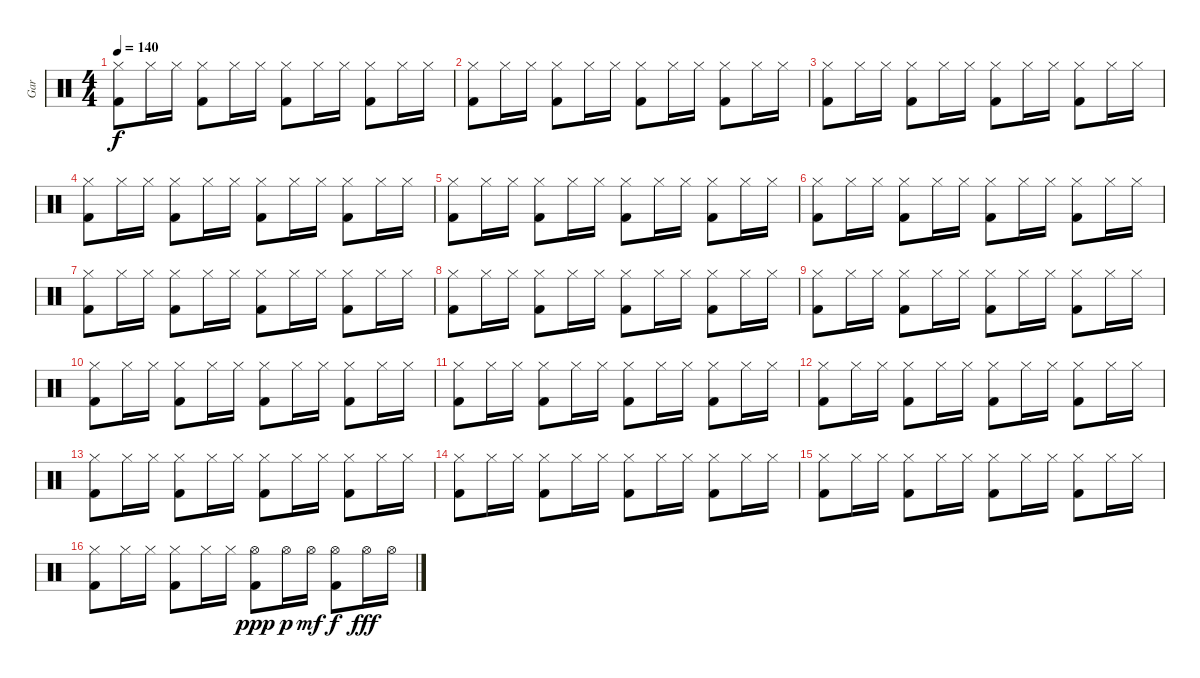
\track ("Gar" "Gar") {instrument percussion}
\staff {score}
\articulation defaults
\ts (4 4)
\tempo 140
\clef neutral
\ks c
("Hi-Hat (closed)" "Kick (hit) 2").8{dy f} "Hi-Hat (closed)".16 "Hi-Hat (closed)".16 ("Hi-Hat (closed)" "Kick (hit) 2").8 "Hi-Hat (closed)".16 "Hi-Hat (closed)".16 ("Hi-Hat (closed)" "Kick (hit) 2").8 "Hi-Hat (closed)".16 "Hi-Hat (closed)".16 ("Hi-Hat (closed)" "Kick (hit) 2").8 "Hi-Hat (closed)".16 "Hi-Hat (closed)".16 |
("Hi-Hat (closed)" "Kick (hit) 2").8 "Hi-Hat (closed)".16 "Hi-Hat (closed)".16 ("Hi-Hat (closed)" "Kick (hit) 2").8 "Hi-Hat (closed)".16 "Hi-Hat (closed)".16 ("Hi-Hat (closed)" "Kick (hit) 2").8 "Hi-Hat (closed)".16 "Hi-Hat (closed)".16 ("Hi-Hat (closed)" "Kick (hit) 2").8 "Hi-Hat (closed)".16 "Hi-Hat (closed)".16 |
("Hi-Hat (closed)" "Kick (hit) 2").8 "Hi-Hat (closed)".16 "Hi-Hat (closed)".16 ("Hi-Hat (closed)" "Kick (hit) 2").8 "Hi-Hat (closed)".16 "Hi-Hat (closed)".16 ("Hi-Hat (closed)" "Kick (hit) 2").8 "Hi-Hat (closed)".16 "Hi-Hat (closed)".16 ("Hi-Hat (closed)" "Kick (hit) 2").8 "Hi-Hat (closed)".16 "Hi-Hat (closed)".16 |
("Hi-Hat (closed)" "Kick (hit) 2").8 "Hi-Hat (closed)".16 "Hi-Hat (closed)".16 ("Hi-Hat (closed)" "Kick (hit) 2").8 "Hi-Hat (closed)".16 "Hi-Hat (closed)".16 ("Hi-Hat (closed)" "Kick (hit) 2").8 "Hi-Hat (closed)".16 "Hi-Hat (closed)".16 ("Hi-Hat (closed)" "Kick (hit) 2").8 "Hi-Hat (closed)".16 "Hi-Hat (closed)".16 |
("Hi-Hat (closed)" "Kick (hit) 2").8 "Hi-Hat (closed)".16 "Hi-Hat (closed)".16 ("Hi-Hat (closed)" "Kick (hit) 2").8 "Hi-Hat (closed)".16 "Hi-Hat (closed)".16 ("Hi-Hat (closed)" "Kick (hit) 2").8 "Hi-Hat (closed)".16 "Hi-Hat (closed)".16 ("Hi-Hat (closed)" "Kick (hit) 2").8 "Hi-Hat (closed)".16 "Hi-Hat (closed)".16 |
("Hi-Hat (closed)" "Kick (hit) 2").8 "Hi-Hat (closed)".16 "Hi-Hat (closed)".16 ("Hi-Hat (closed)" "Kick (hit) 2").8 "Hi-Hat (closed)".16 "Hi-Hat (closed)".16 ("Hi-Hat (closed)" "Kick (hit) 2").8 "Hi-Hat (closed)".16 "Hi-Hat (closed)".16 ("Hi-Hat (closed)" "Kick (hit) 2").8 "Hi-Hat (closed)".16 "Hi-Hat (closed)".16 |
("Hi-Hat (closed)" "Kick (hit) 2").8 "Hi-Hat (closed)".16 "Hi-Hat (closed)".16 ("Hi-Hat (closed)" "Kick (hit) 2").8 "Hi-Hat (closed)".16 "Hi-Hat (closed)".16 ("Hi-Hat (closed)" "Kick (hit) 2").8 "Hi-Hat (closed)".16 "Hi-Hat (closed)".16 ("Hi-Hat (closed)" "Kick (hit) 2").8 "Hi-Hat (closed)".16 "Hi-Hat (closed)".16 |
("Hi-Hat (closed)" "Kick (hit) 2").8 "Hi-Hat (closed)".16 "Hi-Hat (closed)".16 ("Hi-Hat (closed)" "Kick (hit) 2").8 "Hi-Hat (closed)".16 "Hi-Hat (closed)".16 ("Hi-Hat (closed)" "Kick (hit) 2").8 "Hi-Hat (closed)".16 "Hi-Hat (closed)".16 ("Hi-Hat (closed)" "Kick (hit) 2").8 "Hi-Hat (closed)".16 "Hi-Hat (closed)".16 |
("Hi-Hat (closed)" "Kick (hit) 2").8 "Hi-Hat (closed)".16 "Hi-Hat (closed)".16 ("Hi-Hat (closed)" "Kick (hit) 2").8 "Hi-Hat (closed)".16 "Hi-Hat (closed)".16 ("Hi-Hat (closed)" "Kick (hit) 2").8 "Hi-Hat (closed)".16 "Hi-Hat (closed)".16 ("Hi-Hat (closed)" "Kick (hit) 2").8 "Hi-Hat (closed)".16 "Hi-Hat (closed)".16 |
("Hi-Hat (closed)" "Kick (hit) 2").8 "Hi-Hat (closed)".16 "Hi-Hat (closed)".16 ("Hi-Hat (closed)" "Kick (hit) 2").8 "Hi-Hat (closed)".16 "Hi-Hat (closed)".16 ("Hi-Hat (closed)" "Kick (hit) 2").8 "Hi-Hat (closed)".16 "Hi-Hat (closed)".16 ("Hi-Hat (closed)" "Kick (hit) 2").8 "Hi-Hat (closed)".16 "Hi-Hat (closed)".16 |
("Hi-Hat (closed)" "Kick (hit) 2").8 "Hi-Hat (closed)".16 "Hi-Hat (closed)".16 ("Hi-Hat (closed)" "Kick (hit) 2").8 "Hi-Hat (closed)".16 "Hi-Hat (closed)".16 ("Hi-Hat (closed)" "Kick (hit) 2").8 "Hi-Hat (closed)".16 "Hi-Hat (closed)".16 ("Hi-Hat (closed)" "Kick (hit) 2").8 "Hi-Hat (closed)".16 "Hi-Hat (closed)".16 |
("Hi-Hat (closed)" "Kick (hit) 2").8 "Hi-Hat (closed)".16 "Hi-Hat (closed)".16 ("Hi-Hat (closed)" "Kick (hit) 2").8 "Hi-Hat (closed)".16 "Hi-Hat (closed)".16 ("Hi-Hat (closed)" "Kick (hit) 2").8 "Hi-Hat (closed)".16 "Hi-Hat (closed)".16 ("Hi-Hat (closed)" "Kick (hit) 2").8 "Hi-Hat (closed)".16 "Hi-Hat (closed)".16 |
("Hi-Hat (closed)" "Kick (hit) 2").8 "Hi-Hat (closed)".16 "Hi-Hat (closed)".16 ("Hi-Hat (closed)" "Kick (hit) 2").8 "Hi-Hat (closed)".16 "Hi-Hat (closed)".16 ("Hi-Hat (closed)" "Kick (hit) 2").8 "Hi-Hat (closed)".16 "Hi-Hat (closed)".16 ("Hi-Hat (closed)" "Kick (hit) 2").8 "Hi-Hat (closed)".16 "Hi-Hat (closed)".16 |
("Hi-Hat (closed)" "Kick (hit) 2").8 "Hi-Hat (closed)".16 "Hi-Hat (closed)".16 ("Hi-Hat (closed)" "Kick (hit) 2").8 "Hi-Hat (closed)".16 "Hi-Hat (closed)".16 ("Hi-Hat (closed)" "Kick (hit) 2").8 "Hi-Hat (closed)".16 "Hi-Hat (closed)".16 ("Hi-Hat (closed)" "Kick (hit) 2").8 "Hi-Hat (closed)".16 "Hi-Hat (closed)".16 |
("Hi-Hat (closed)" "Kick (hit) 2").8 "Hi-Hat (closed)".16 "Hi-Hat (closed)".16 ("Hi-Hat (closed)" "Kick (hit) 2").8 "Hi-Hat (closed)".16 "Hi-Hat (closed)".16 ("Hi-Hat (closed)" "Kick (hit) 2").8 "Hi-Hat (closed)".16 "Hi-Hat (closed)".16 ("Hi-Hat (closed)" "Kick (hit) 2").8 "Hi-Hat (closed)".16 "Hi-Hat (closed)".16 |
("Hi-Hat (closed)" "Kick (hit) 2").8 "Hi-Hat (closed)".16 "Hi-Hat (closed)".16 ("Hi-Hat (closed)" "Kick (hit) 2").8 "Hi-Hat (closed)".16 "Hi-Hat (closed)".16 ("Hi-Hat (open)" "Kick (hit) 2").8{dy ppp} "Hi-Hat (open)".16{dy p} "Hi-Hat (open)".16{dy mf} ("Hi-Hat (open)" "Kick (hit) 2").8{dy f} "Hi-Hat (open)".16{dy fff} "Hi-Hat (open)".16
